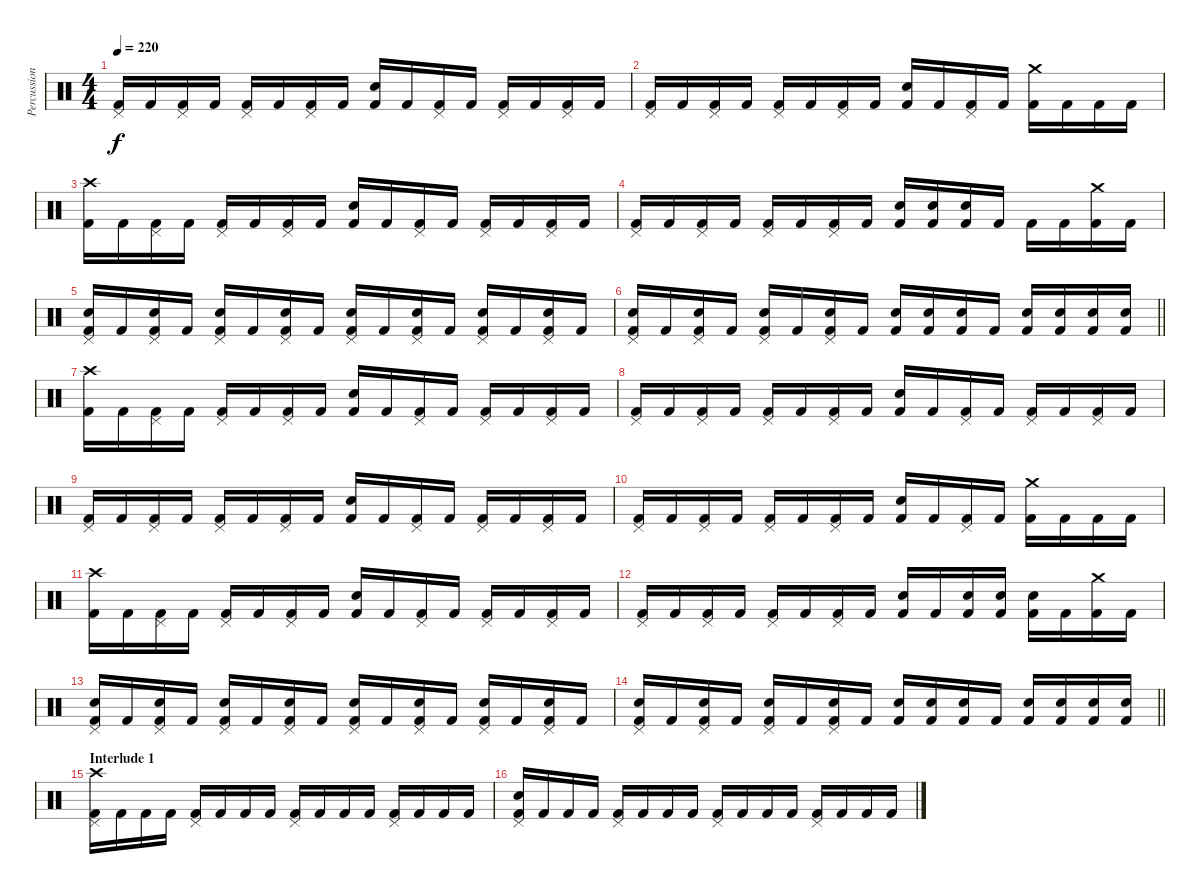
\track ("Percussion" "Percussion") {instrument percussion}
\staff {score}
\articulation defaults
\ts (4 4)
\tempo 220
\clef neutral
\ks c
("Pedal Hi-Hat (hit)" "Kick (hit) 2").16{dy f} "Kick (hit) 2".16 ("Pedal Hi-Hat (hit)" "Kick (hit) 2").16 "Kick (hit) 2".16 ("Pedal Hi-Hat (hit)" "Kick (hit) 2").16 "Kick (hit) 2".16 ("Pedal Hi-Hat (hit)" "Kick (hit) 2").16 "Kick (hit) 2".16 ("Snare (hit) 2" "Kick (hit) 2").16 "Kick (hit) 2".16 ("Pedal Hi-Hat (hit)" "Kick (hit) 2").16 "Kick (hit) 2".16 ("Pedal Hi-Hat (hit)" "Kick (hit) 2").16 "Kick (hit) 2".16 ("Pedal Hi-Hat (hit)" "Kick (hit) 2").16 "Kick (hit) 2".16 |
("Pedal Hi-Hat (hit)" "Kick (hit) 2").16 "Kick (hit) 2".16 ("Pedal Hi-Hat (hit)" "Kick (hit) 2").16 "Kick (hit) 2".16 ("Pedal Hi-Hat (hit)" "Kick (hit) 2").16 "Kick (hit) 2".16 ("Pedal Hi-Hat (hit)" "Kick (hit) 2").16 "Kick (hit) 2".16 ("Snare (hit) 2" "Kick (hit) 2").16 "Kick (hit) 2".16 ("Pedal Hi-Hat (hit)" "Kick (hit) 2").16 "Kick (hit) 2".16 ("Crash medium (hit)" "Kick (hit) 2").16 "Kick (hit) 2".16 "Kick (hit) 2".16 "Kick (hit) 2".16 |
("Crash high (hit)" "Kick (hit) 2").16 "Kick (hit) 2".16 ("Pedal Hi-Hat (hit)" "Kick (hit) 2").16 "Kick (hit) 2".16 ("Pedal Hi-Hat (hit)" "Kick (hit) 2").16 "Kick (hit) 2".16 ("Pedal Hi-Hat (hit)" "Kick (hit) 2").16 "Kick (hit) 2".16 ("Snare (hit) 2" "Kick (hit) 2").16 "Kick (hit) 2".16 ("Pedal Hi-Hat (hit)" "Kick (hit) 2").16 "Kick (hit) 2".16 ("Pedal Hi-Hat (hit)" "Kick (hit) 2").16 "Kick (hit) 2".16 ("Pedal Hi-Hat (hit)" "Kick (hit) 2").16 "Kick (hit) 2".16 |
("Pedal Hi-Hat (hit)" "Kick (hit) 2").16 "Kick (hit) 2".16 ("Pedal Hi-Hat (hit)" "Kick (hit) 2").16 "Kick (hit) 2".16 ("Pedal Hi-Hat (hit)" "Kick (hit) 2").16 "Kick (hit) 2".16 ("Pedal Hi-Hat (hit)" "Kick (hit) 2").16 "Kick (hit) 2".16 ("Snare (hit) 2" "Kick (hit) 2").16 ("Snare (hit) 2" "Kick (hit) 2").16 ("Snare (hit) 2" "Kick (hit) 2").16 "Kick (hit) 2".16 "Kick (hit) 2".16 "Kick (hit) 2".16 ("Crash medium (hit)" "Kick (hit) 2").16 "Kick (hit) 2".16 |
("Pedal Hi-Hat (hit)" "Snare (hit) 2" "Kick (hit) 2").16 "Kick (hit) 2".16 ("Pedal Hi-Hat (hit)" "Snare (hit) 2" "Kick (hit) 2").16 "Kick (hit) 2".16 ("Pedal Hi-Hat (hit)" "Snare (hit) 2" "Kick (hit) 2").16 "Kick (hit) 2".16 ("Pedal Hi-Hat (hit)" "Snare (hit) 2" "Kick (hit) 2").16 "Kick (hit) 2".16 ("Pedal Hi-Hat (hit)" "Snare (hit) 2" "Kick (hit) 2").16 "Kick (hit) 2".16 ("Pedal Hi-Hat (hit)" "Snare (hit) 2" "Kick (hit) 2").16 "Kick (hit) 2".16 ("Pedal Hi-Hat (hit)" "Snare (hit) 2" "Kick (hit) 2").16 "Kick (hit) 2".16 ("Pedal Hi-Hat (hit)" "Snare (hit) 2" "Kick (hit) 2").16 "Kick (hit) 2".16 |
\barLineRight lightlight
("Pedal Hi-Hat (hit)" "Snare (hit) 2" "Kick (hit) 2").16 "Kick (hit) 2".16 ("Pedal Hi-Hat (hit)" "Snare (hit) 2" "Kick (hit) 2").16 "Kick (hit) 2".16 ("Pedal Hi-Hat (hit)" "Snare (hit) 2" "Kick (hit) 2").16 "Kick (hit) 2".16 ("Pedal Hi-Hat (hit)" "Snare (hit) 2" "Kick (hit) 2").16 "Kick (hit) 2".16 ("Snare (hit) 2" "Kick (hit) 2").16 ("Snare (hit) 2" "Kick (hit) 2").16 ("Snare (hit) 2" "Kick (hit) 2").16 "Kick (hit) 2".16 ("Snare (hit) 2" "Kick (hit) 2").16 ("Snare (hit) 2" "Kick (hit) 2").16 ("Snare (hit) 2" "Kick (hit) 2").16 ("Snare (hit) 2" "Kick (hit) 2").16 |
("Crash high (hit)" "Kick (hit) 2").16 "Kick (hit) 2".16 ("Pedal Hi-Hat (hit)" "Kick (hit) 2").16 "Kick (hit) 2".16 ("Pedal Hi-Hat (hit)" "Kick (hit) 2").16 "Kick (hit) 2".16 ("Pedal Hi-Hat (hit)" "Kick (hit) 2").16 "Kick (hit) 2".16 ("Snare (hit) 2" "Kick (hit) 2").16 "Kick (hit) 2".16 ("Pedal Hi-Hat (hit)" "Kick (hit) 2").16 "Kick (hit) 2".16 ("Pedal Hi-Hat (hit)" "Kick (hit) 2").16 "Kick (hit) 2".16 ("Pedal Hi-Hat (hit)" "Kick (hit) 2").16 "Kick (hit) 2".16 |
("Pedal Hi-Hat (hit)" "Kick (hit) 2").16 "Kick (hit) 2".16 ("Pedal Hi-Hat (hit)" "Kick (hit) 2").16 "Kick (hit) 2".16 ("Pedal Hi-Hat (hit)" "Kick (hit) 2").16 "Kick (hit) 2".16 ("Pedal Hi-Hat (hit)" "Kick (hit) 2").16 "Kick (hit) 2".16 ("Snare (hit) 2" "Kick (hit) 2").16 "Kick (hit) 2".16 ("Pedal Hi-Hat (hit)" "Kick (hit) 2").16 "Kick (hit) 2".16 ("Pedal Hi-Hat (hit)" "Kick (hit) 2").16 "Kick (hit) 2".16 ("Pedal Hi-Hat (hit)" "Kick (hit) 2").16 "Kick (hit) 2".16 |
("Pedal Hi-Hat (hit)" "Kick (hit) 2").16 "Kick (hit) 2".16 ("Pedal Hi-Hat (hit)" "Kick (hit) 2").16 "Kick (hit) 2".16 ("Pedal Hi-Hat (hit)" "Kick (hit) 2").16 "Kick (hit) 2".16 ("Pedal Hi-Hat (hit)" "Kick (hit) 2").16 "Kick (hit) 2".16 ("Snare (hit) 2" "Kick (hit) 2").16 "Kick (hit) 2".16 ("Pedal Hi-Hat (hit)" "Kick (hit) 2").16 "Kick (hit) 2".16 ("Pedal Hi-Hat (hit)" "Kick (hit) 2").16 "Kick (hit) 2".16 ("Pedal Hi-Hat (hit)" "Kick (hit) 2").16 "Kick (hit) 2".16 |
("Pedal Hi-Hat (hit)" "Kick (hit) 2").16 "Kick (hit) 2".16 ("Pedal Hi-Hat (hit)" "Kick (hit) 2").16 "Kick (hit) 2".16 ("Pedal Hi-Hat (hit)" "Kick (hit) 2").16 "Kick (hit) 2".16 ("Pedal Hi-Hat (hit)" "Kick (hit) 2").16 "Kick (hit) 2".16 ("Snare (hit) 2" "Kick (hit) 2").16 "Kick (hit) 2".16 ("Pedal Hi-Hat (hit)" "Kick (hit) 2").16 "Kick (hit) 2".16 ("Crash medium (hit)" "Kick (hit) 2").16 "Kick (hit) 2".16 "Kick (hit) 2".16 "Kick (hit) 2".16 |
("Crash high (hit)" "Kick (hit) 2").16 "Kick (hit) 2".16 ("Pedal Hi-Hat (hit)" "Kick (hit) 2").16 "Kick (hit) 2".16 ("Pedal Hi-Hat (hit)" "Kick (hit) 2").16 "Kick (hit) 2".16 ("Pedal Hi-Hat (hit)" "Kick (hit) 2").16 "Kick (hit) 2".16 ("Snare (hit) 2" "Kick (hit) 2").16 "Kick (hit) 2".16 ("Pedal Hi-Hat (hit)" "Kick (hit) 2").16 "Kick (hit) 2".16 ("Pedal Hi-Hat (hit)" "Kick (hit) 2").16 "Kick (hit) 2".16 ("Pedal Hi-Hat (hit)" "Kick (hit) 2").16 "Kick (hit) 2".16 |
("Pedal Hi-Hat (hit)" "Kick (hit) 2").16 "Kick (hit) 2".16 ("Pedal Hi-Hat (hit)" "Kick (hit) 2").16 "Kick (hit) 2".16 ("Pedal Hi-Hat (hit)" "Kick (hit) 2").16 "Kick (hit) 2".16 ("Pedal Hi-Hat (hit)" "Kick (hit) 2").16 "Kick (hit) 2".16 ("Snare (hit) 2" "Kick (hit) 2").16 "Kick (hit) 2".16 ("Snare (hit) 2" "Kick (hit) 2").16 ("Snare (hit) 2" "Kick (hit) 2").16 ("Snare (hit) 2" "Kick (hit) 2").16 "Kick (hit) 2".16 ("Crash medium (hit)" "Kick (hit) 2").16 "Kick (hit) 2".16 |
("Pedal Hi-Hat (hit)" "Snare (hit) 2" "Kick (hit) 2").16 "Kick (hit) 2".16 ("Pedal Hi-Hat (hit)" "Snare (hit) 2" "Kick (hit) 2").16 "Kick (hit) 2".16 ("Pedal Hi-Hat (hit)" "Snare (hit) 2" "Kick (hit) 2").16 "Kick (hit) 2".16 ("Pedal Hi-Hat (hit)" "Snare (hit) 2" "Kick (hit) 2").16 "Kick (hit) 2".16 ("Pedal Hi-Hat (hit)" "Snare (hit) 2" "Kick (hit) 2").16 "Kick (hit) 2".16 ("Pedal Hi-Hat (hit)" "Snare (hit) 2" "Kick (hit) 2").16 "Kick (hit) 2".16 ("Pedal Hi-Hat (hit)" "Snare (hit) 2" "Kick (hit) 2").16 "Kick (hit) 2".16 ("Pedal Hi-Hat (hit)" "Snare (hit) 2" "Kick (hit) 2").16 "Kick (hit) 2".16 |
\barLineRight lightlight
("Pedal Hi-Hat (hit)" "Snare (hit) 2" "Kick (hit) 2").16 "Kick (hit) 2".16 ("Pedal Hi-Hat (hit)" "Snare (hit) 2" "Kick (hit) 2").16 "Kick (hit) 2".16 ("Pedal Hi-Hat (hit)" "Snare (hit) 2" "Kick (hit) 2").16 "Kick (hit) 2".16 ("Pedal Hi-Hat (hit)" "Snare (hit) 2" "Kick (hit) 2").16 "Kick (hit) 2".16 ("Snare (hit) 2" "Kick (hit) 2").16 ("Snare (hit) 2" "Kick (hit) 2").16 ("Snare (hit) 2" "Kick (hit) 2").16 "Kick (hit) 2".16 ("Snare (hit) 2" "Kick (hit) 2").16 ("Snare (hit) 2" "Kick (hit) 2").16 ("Snare (hit) 2" "Kick (hit) 2").16 ("Snare (hit) 2" "Kick (hit) 2").16 |
\section ("" "Interlude 1")
("Crash high (hit)" "Pedal Hi-Hat (hit)" "Kick (hit) 2").16 "Kick (hit) 2".16 "Kick (hit) 2".16 "Kick (hit) 2".16 ("Pedal Hi-Hat (hit)" "Kick (hit) 2").16 "Kick (hit) 2".16 "Kick (hit) 2".16 "Kick (hit) 2".16 ("Pedal Hi-Hat (hit)" "Kick (hit) 2").16 "Kick (hit) 2".16 "Kick (hit) 2".16 "Kick (hit) 2".16 ("Pedal Hi-Hat (hit)" "Kick (hit) 2").16 "Kick (hit) 2".16 "Kick (hit) 2".16 "Kick (hit) 2".16 |
("Pedal Hi-Hat (hit)" "Snare (hit) 2" "Kick (hit) 2").16 "Kick (hit) 2".16 "Kick (hit) 2".16 "Kick (hit) 2".16 ("Pedal Hi-Hat (hit)" "Kick (hit) 2").16 "Kick (hit) 2".16 "Kick (hit) 2".16 "Kick (hit) 2".16 ("Pedal Hi-Hat (hit)" "Kick (hit) 2").16 "Kick (hit) 2".16 "Kick (hit) 2".16 "Kick (hit) 2".16 ("Pedal Hi-Hat (hit)" "Kick (hit) 2").16 "Kick (hit) 2".16 "Kick (hit) 2".16 "Kick (hit) 2".16
